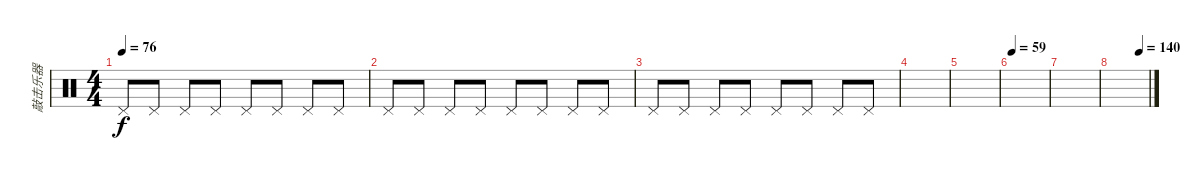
\track ("敲击乐器" "敲击乐器") {instrument percussion}
\staff {score}
\articulation defaults
\ts (4 4)
\tempo 76
\clef neutral
\ks c "Pedal Hi-Hat (hit)".8{dy f} "Pedal Hi-Hat (hit)".8 "Pedal Hi-Hat (hit)".8 "Pedal Hi-Hat (hit)".8 "Pedal Hi-Hat (hit)".8 "Pedal Hi-Hat (hit)".8 "Pedal Hi-Hat (hit)".8 "Pedal Hi-Hat (hit)".8
|
"Pedal Hi-Hat (hit)".8 "Pedal Hi-Hat (hit)".8 "Pedal Hi-Hat (hit)".8 "Pedal Hi-Hat (hit)".8 "Pedal Hi-Hat (hit)".8 "Pedal Hi-Hat (hit)".8 "Pedal Hi-Hat (hit)".8 "Pedal Hi-Hat (hit)".8 |
"Pedal Hi-Hat (hit)".8 "Pedal Hi-Hat (hit)".8 "Pedal Hi-Hat (hit)".8 "Pedal Hi-Hat (hit)".8 "Pedal Hi-Hat (hit)".8 "Pedal Hi-Hat (hit)".8 "Pedal Hi-Hat (hit)".8 "Pedal Hi-Hat (hit)".8 |
|
|
\tempo 59
|
|
\tempo (140 0.75)
